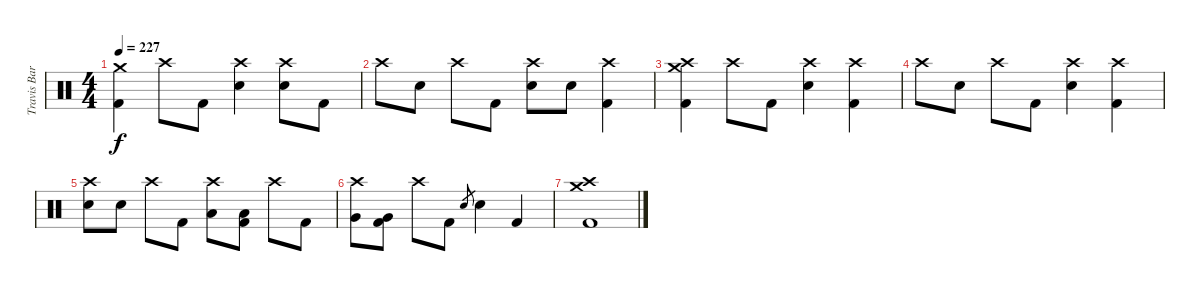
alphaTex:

\track ("Travis Barker - Drum" "Travis Bar") {instrument percussion}
\staff {score}
\articulation defaults
\ts (4 4)
\tempo 227
\clef neutral
\ks c
("Crash medium (hit)" "Kick (hit) 2").4{dy f} "Crash high (hit)".8 "Kick (hit) 2".8 ("Crash high (hit)" "Electric Snare (hit)").4 ("Crash high (hit)" "Electric Snare (hit)").8 "Kick (hit) 2".8 |
"Crash high (hit)".8 "Electric Snare (hit)".8 "Crash high (hit)".8 "Kick (hit) 2".8 ("Crash high (hit)" "Electric Snare (hit)").8 "Electric Snare (hit)".8 ("Crash high (hit)" "Kick (hit) 2").4 |
("Crash medium (hit)" "Crash high (hit)" "Kick (hit) 2").4 "Crash high (hit)".8 "Kick (hit) 2".8 ("Crash high (hit)" "Electric Snare (hit)").4 ("Crash high (hit)" "Kick (hit) 2").4 |
"Crash high (hit)".8 "Electric Snare (hit)".8 "Crash high (hit)".8 "Kick (hit) 2".8 ("Crash high (hit)" "Electric Snare (hit)").4 ("Crash high (hit)" "Kick (hit) 2").4 |
("Crash high (hit)" "Electric Snare (hit)").8 "Electric Snare (hit)".8 "Crash high (hit)".8 "Kick (hit) 2".8 ("Crash high (hit)" "Low Tom (hit)").8 ("Low Tom (hit)" "Kick (hit) 2").8 "Crash high (hit)".8 "Kick (hit) 2".8 |
("Crash high (hit)" "Very Low Tom (hit)").8 ("Very Low Tom (hit)" "Kick (hit) 2").8 "Crash high (hit)".8 "Kick (hit) 2".8 "Electric Snare (hit)".8{gr} "Electric Snare (hit)".4 "Kick (hit) 2".4 |
("Crash medium (hit)" "Crash high (hit)" "Kick (hit) 2").1
